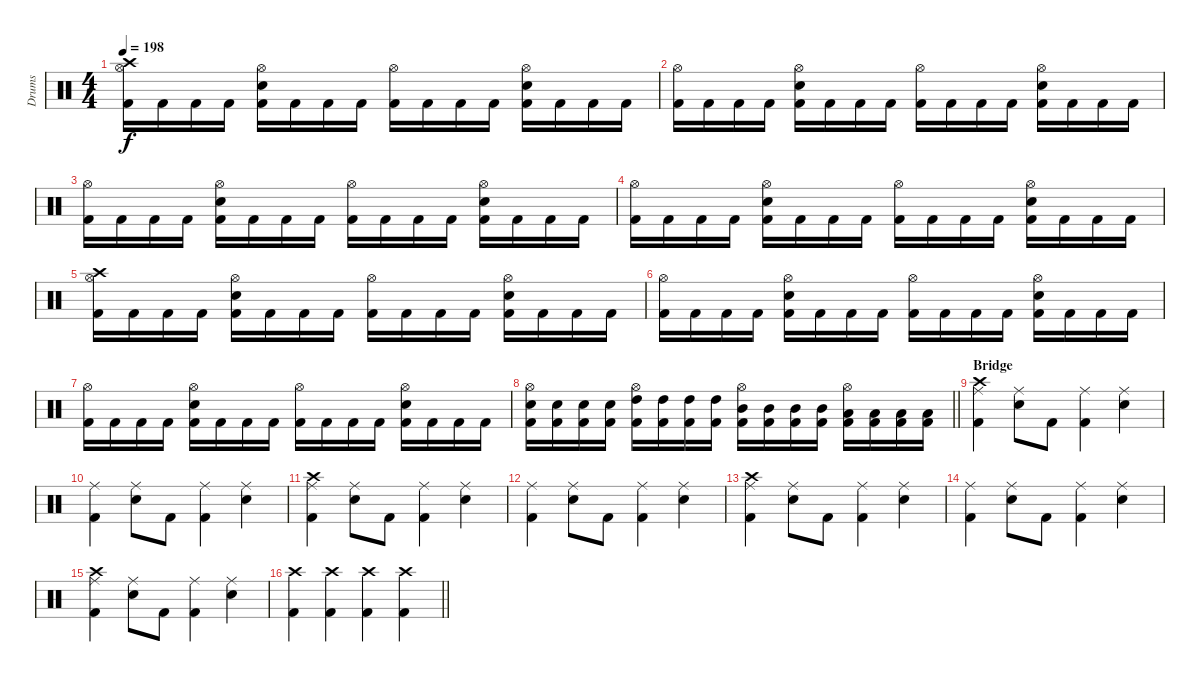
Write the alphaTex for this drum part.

\track ("Drums" "Drums") {instrument percussion}
\staff {score}
\articulation defaults
\ts (4 4)
\tempo 198
\clef neutral
\ks c
("Crash high (hit)" "Hi-Hat (open)" "Kick (hit) 2").16{dy f} "Kick (hit) 2".16 "Kick (hit) 2".16 "Kick (hit) 2".16 ("Hi-Hat (open)" "Snare (hit) 2" "Kick (hit) 2").16 "Kick (hit) 2".16 "Kick (hit) 2".16 "Kick (hit) 2".16 ("Hi-Hat (open)" "Kick (hit) 2").16 "Kick (hit) 2".16 "Kick (hit) 2".16 "Kick (hit) 2".16 ("Hi-Hat (open)" "Snare (hit) 2" "Kick (hit) 2").16 "Kick (hit) 2".16 "Kick (hit) 2".16 "Kick (hit) 2".16 |
("Hi-Hat (open)" "Kick (hit) 2").16 "Kick (hit) 2".16 "Kick (hit) 2".16 "Kick (hit) 2".16 ("Hi-Hat (open)" "Snare (hit) 2" "Kick (hit) 2").16 "Kick (hit) 2".16 "Kick (hit) 2".16 "Kick (hit) 2".16 ("Hi-Hat (open)" "Kick (hit) 2").16 "Kick (hit) 2".16 "Kick (hit) 2".16 "Kick (hit) 2".16 ("Hi-Hat (open)" "Snare (hit) 2" "Kick (hit) 2").16 "Kick (hit) 2".16 "Kick (hit) 2".16 "Kick (hit) 2".16 |
("Hi-Hat (open)" "Kick (hit) 2").16 "Kick (hit) 2".16 "Kick (hit) 2".16 "Kick (hit) 2".16 ("Hi-Hat (open)" "Snare (hit) 2" "Kick (hit) 2").16 "Kick (hit) 2".16 "Kick (hit) 2".16 "Kick (hit) 2".16 ("Hi-Hat (open)" "Kick (hit) 2").16 "Kick (hit) 2".16 "Kick (hit) 2".16 "Kick (hit) 2".16 ("Hi-Hat (open)" "Snare (hit) 2" "Kick (hit) 2").16 "Kick (hit) 2".16 "Kick (hit) 2".16 "Kick (hit) 2".16 |
("Hi-Hat (open)" "Kick (hit) 2").16 "Kick (hit) 2".16 "Kick (hit) 2".16 "Kick (hit) 2".16 ("Hi-Hat (open)" "Snare (hit) 2" "Kick (hit) 2").16 "Kick (hit) 2".16 "Kick (hit) 2".16 "Kick (hit) 2".16 ("Hi-Hat (open)" "Kick (hit) 2").16 "Kick (hit) 2".16 "Kick (hit) 2".16 "Kick (hit) 2".16 ("Hi-Hat (open)" "Snare (hit) 2" "Kick (hit) 2").16 "Kick (hit) 2".16 "Kick (hit) 2".16 "Kick (hit) 2".16 |
("Crash high (hit)" "Hi-Hat (open)" "Kick (hit) 2").16 "Kick (hit) 2".16 "Kick (hit) 2".16 "Kick (hit) 2".16 ("Hi-Hat (open)" "Snare (hit) 2" "Kick (hit) 2").16 "Kick (hit) 2".16 "Kick (hit) 2".16 "Kick (hit) 2".16 ("Hi-Hat (open)" "Kick (hit) 2").16 "Kick (hit) 2".16 "Kick (hit) 2".16 "Kick (hit) 2".16 ("Hi-Hat (open)" "Snare (hit) 2" "Kick (hit) 2").16 "Kick (hit) 2".16 "Kick (hit) 2".16 "Kick (hit) 2".16 |
("Hi-Hat (open)" "Kick (hit) 2").16 "Kick (hit) 2".16 "Kick (hit) 2".16 "Kick (hit) 2".16 ("Hi-Hat (open)" "Snare (hit) 2" "Kick (hit) 2").16 "Kick (hit) 2".16 "Kick (hit) 2".16 "Kick (hit) 2".16 ("Hi-Hat (open)" "Kick (hit) 2").16 "Kick (hit) 2".16 "Kick (hit) 2".16 "Kick (hit) 2".16 ("Hi-Hat (open)" "Snare (hit) 2" "Kick (hit) 2").16 "Kick (hit) 2".16 "Kick (hit) 2".16 "Kick (hit) 2".16 |
("Hi-Hat (open)" "Kick (hit) 2").16 "Kick (hit) 2".16 "Kick (hit) 2".16 "Kick (hit) 2".16 ("Hi-Hat (open)" "Snare (hit) 2" "Kick (hit) 2").16 "Kick (hit) 2".16 "Kick (hit) 2".16 "Kick (hit) 2".16 ("Hi-Hat (open)" "Kick (hit) 2").16 "Kick (hit) 2".16 "Kick (hit) 2".16 "Kick (hit) 2".16 ("Hi-Hat (open)" "Snare (hit) 2" "Kick (hit) 2").16 "Kick (hit) 2".16 "Kick (hit) 2".16 "Kick (hit) 2".16 |
\barLineRight lightlight
("Hi-Hat (open)" "Snare (hit) 2" "Kick (hit) 2").16 ("Snare (hit) 2" "Kick (hit) 2").16 ("Snare (hit) 2" "Kick (hit) 2").16 ("Snare (hit) 2" "Kick (hit) 2").16 ("Hi-Hat (open)" "High Tom (hit)" "Kick (hit) 2").16 ("High Tom (hit)" "Kick (hit) 2").16 ("High Tom (hit)" "Kick (hit) 2").16 ("High Tom (hit)" "Kick (hit) 2").16 ("Hi-Hat (open)" "Mid Tom (hit)" "Kick (hit) 2").16 ("Mid Tom (hit)" "Kick (hit) 2").16 ("Mid Tom (hit)" "Kick (hit) 2").16 ("Mid Tom (hit)" "Kick (hit) 2").16 ("Hi-Hat (open)" "Low Tom (hit)" "Kick (hit) 2").16 ("Low Tom (hit)" "Kick (hit) 2").16 ("Low Tom (hit)" "Kick (hit) 2").16 ("Low Tom (hit)" "Kick (hit) 2").16 |
\section ("" "Bridge")
("Crash high (hit)" "Ride (middle)" "Kick (hit) 2").4 ("Ride (middle)" "Snare (hit) 2").8 "Kick (hit) 2".8 ("Ride (middle)" "Kick (hit) 2").4 ("Ride (middle)" "Snare (hit) 2").4 |
("Ride (middle)" "Kick (hit) 2").4 ("Ride (middle)" "Snare (hit) 2").8 "Kick (hit) 2".8 ("Ride (middle)" "Kick (hit) 2").4 ("Ride (middle)" "Snare (hit) 2").4 |
("Crash high (hit)" "Ride (middle)" "Kick (hit) 2").4 ("Ride (middle)" "Snare (hit) 2").8 "Kick (hit) 2".8 ("Ride (middle)" "Kick (hit) 2").4 ("Ride (middle)" "Snare (hit) 2").4 |
("Ride (middle)" "Kick (hit) 2").4 ("Ride (middle)" "Snare (hit) 2").8 "Kick (hit) 2".8 ("Ride (middle)" "Kick (hit) 2").4 ("Ride (middle)" "Snare (hit) 2").4 |
("Crash high (hit)" "Ride (middle)" "Kick (hit) 2").4 ("Ride (middle)" "Snare (hit) 2").8 "Kick (hit) 2".8 ("Ride (middle)" "Kick (hit) 2").4 ("Ride (middle)" "Snare (hit) 2").4 |
("Ride (middle)" "Kick (hit) 2").4 ("Ride (middle)" "Snare (hit) 2").8 "Kick (hit) 2".8 ("Ride (middle)" "Kick (hit) 2").4 ("Ride (middle)" "Snare (hit) 2").4 |
("Crash high (hit)" "Ride (middle)" "Kick (hit) 2").4 ("Ride (middle)" "Snare (hit) 2").8 "Kick (hit) 2".8 ("Ride (middle)" "Kick (hit) 2").4 ("Ride (middle)" "Snare (hit) 2").4 |
\barLineRight lightlight
("Crash high (hit)" "Kick (hit) 2").4 ("Crash high (hit)" "Kick (hit) 2").4 ("Crash high (hit)" "Kick (hit) 2").4 ("Crash high (hit)" "Kick (hit) 2").4
